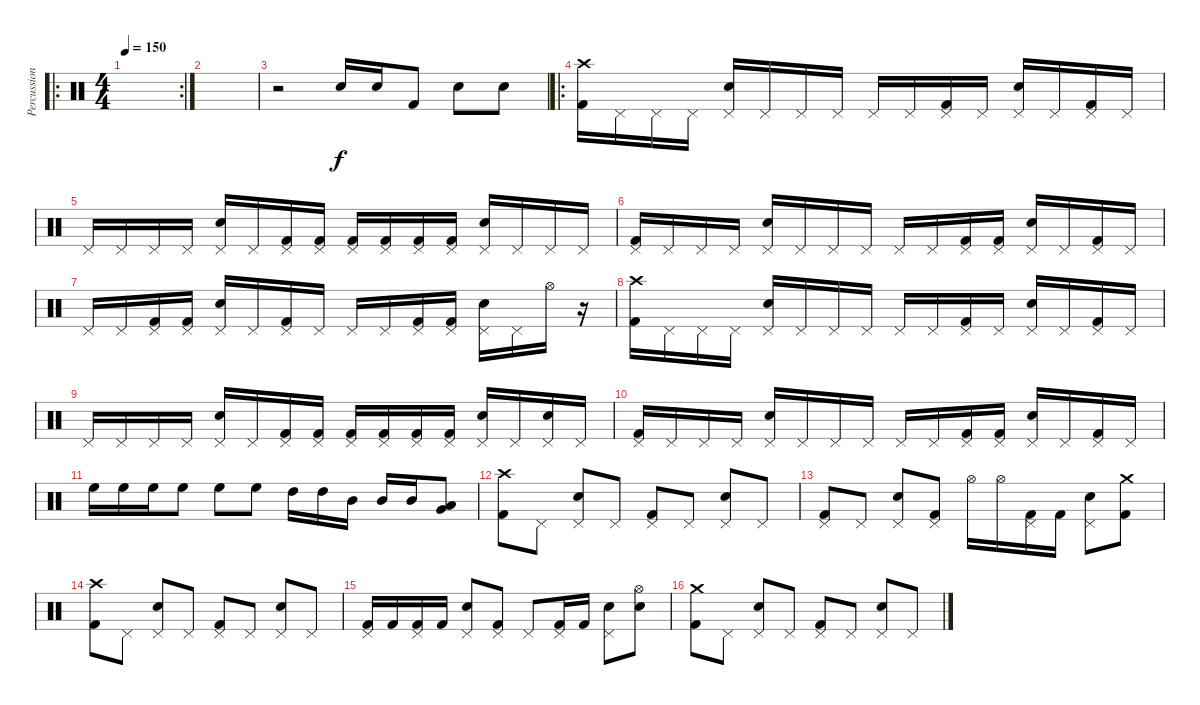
\track ("Percussion" "Percussion") {instrument percussion}
\staff {score}
\articulation defaults
\ro
\rc 2
\ts (4 4)
\tempo 150
\clef neutral
\ks c
|
|
r.2 "Snare (hit) 2".16 "Snare (hit) 2".16 "Kick (hit) 2".8 "Snare (hit) 2".8 "Snare (hit) 2".8 |
\ro
("Crash high (hit)" "Kick (hit) 2").16 "Pedal Hi-Hat (hit)".16 "Pedal Hi-Hat (hit)".16 "Pedal Hi-Hat (hit)".16 ("Pedal Hi-Hat (hit)" "Snare (hit) 2").16 "Pedal Hi-Hat (hit)".16 "Pedal Hi-Hat (hit)".16 "Pedal Hi-Hat (hit)".16 "Pedal Hi-Hat (hit)".16 "Pedal Hi-Hat (hit)".16 ("Pedal Hi-Hat (hit)" "Kick (hit) 2").16 "Pedal Hi-Hat (hit)".16 ("Pedal Hi-Hat (hit)" "Snare (hit) 2").16 "Pedal Hi-Hat (hit)".16 ("Pedal Hi-Hat (hit)" "Kick (hit) 2").16 "Pedal Hi-Hat (hit)".16 |
"Pedal Hi-Hat (hit)".16 "Pedal Hi-Hat (hit)".16 "Pedal Hi-Hat (hit)".16 "Pedal Hi-Hat (hit)".16 ("Pedal Hi-Hat (hit)" "Snare (hit) 2").16 "Pedal Hi-Hat (hit)".16 ("Pedal Hi-Hat (hit)" "Kick (hit) 2").16 ("Pedal Hi-Hat (hit)" "Kick (hit) 2").16 ("Pedal Hi-Hat (hit)" "Kick (hit) 2").16 ("Pedal Hi-Hat (hit)" "Kick (hit) 2").16 ("Pedal Hi-Hat (hit)" "Kick (hit) 2").16 ("Pedal Hi-Hat (hit)" "Kick (hit) 2").16 ("Pedal Hi-Hat (hit)" "Snare (hit) 2").16 "Pedal Hi-Hat (hit)".16 "Pedal Hi-Hat (hit)".16 "Pedal Hi-Hat (hit)".16 |
("Pedal Hi-Hat (hit)" "Kick (hit) 2").16 "Pedal Hi-Hat (hit)".16 "Pedal Hi-Hat (hit)".16 "Pedal Hi-Hat (hit)".16 ("Pedal Hi-Hat (hit)" "Snare (hit) 2").16 "Pedal Hi-Hat (hit)".16 "Pedal Hi-Hat (hit)".16 "Pedal Hi-Hat (hit)".16 "Pedal Hi-Hat (hit)".16 "Pedal Hi-Hat (hit)".16 ("Pedal Hi-Hat (hit)" "Kick (hit) 2").16 ("Pedal Hi-Hat (hit)" "Kick (hit) 2").16 ("Pedal Hi-Hat (hit)" "Snare (hit) 2").16 "Pedal Hi-Hat (hit)".16 ("Pedal Hi-Hat (hit)" "Kick (hit) 2").16 "Pedal Hi-Hat (hit)".16 |
"Pedal Hi-Hat (hit)".16 "Pedal Hi-Hat (hit)".16 ("Pedal Hi-Hat (hit)" "Kick (hit) 2").16 ("Pedal Hi-Hat (hit)" "Kick (hit) 2").16 ("Pedal Hi-Hat (hit)" "Snare (hit) 2").16 "Pedal Hi-Hat (hit)".16 ("Pedal Hi-Hat (hit)" "Kick (hit) 2").16 "Pedal Hi-Hat (hit)".16 "Pedal Hi-Hat (hit)".16 "Pedal Hi-Hat (hit)".16 ("Pedal Hi-Hat (hit)" "Kick (hit) 2").16 ("Pedal Hi-Hat (hit)" "Kick (hit) 2").16 ("Pedal Hi-Hat (hit)" "Snare (hit) 2").16 "Pedal Hi-Hat (hit)".16 "Hi-Hat (open)".16 r.16 |
("Crash high (hit)" "Kick (hit) 2").16 "Pedal Hi-Hat (hit)".16 "Pedal Hi-Hat (hit)".16 "Pedal Hi-Hat (hit)".16 ("Pedal Hi-Hat (hit)" "Snare (hit) 2").16 "Pedal Hi-Hat (hit)".16 "Pedal Hi-Hat (hit)".16 "Pedal Hi-Hat (hit)".16 "Pedal Hi-Hat (hit)".16 "Pedal Hi-Hat (hit)".16 ("Pedal Hi-Hat (hit)" "Kick (hit) 2").16 "Pedal Hi-Hat (hit)".16 ("Pedal Hi-Hat (hit)" "Snare (hit) 2").16 "Pedal Hi-Hat (hit)".16 ("Pedal Hi-Hat (hit)" "Kick (hit) 2").16 "Pedal Hi-Hat (hit)".16 |
"Pedal Hi-Hat (hit)".16 "Pedal Hi-Hat (hit)".16 "Pedal Hi-Hat (hit)".16 "Pedal Hi-Hat (hit)".16 ("Pedal Hi-Hat (hit)" "Snare (hit) 2").16 "Pedal Hi-Hat (hit)".16 ("Pedal Hi-Hat (hit)" "Kick (hit) 2").16 ("Pedal Hi-Hat (hit)" "Kick (hit) 2").16 ("Pedal Hi-Hat (hit)" "Kick (hit) 2").16 ("Pedal Hi-Hat (hit)" "Kick (hit) 2").16 ("Pedal Hi-Hat (hit)" "Kick (hit) 2").16 ("Pedal Hi-Hat (hit)" "Kick (hit) 2").16 ("Pedal Hi-Hat (hit)" "Snare (hit) 2").16 "Pedal Hi-Hat (hit)".16 ("Pedal Hi-Hat (hit)" "Snare (hit) 2").16 "Pedal Hi-Hat (hit)".16 |
("Pedal Hi-Hat (hit)" "Kick (hit) 2").16 "Pedal Hi-Hat (hit)".16 "Pedal Hi-Hat (hit)".16 "Pedal Hi-Hat (hit)".16 ("Pedal Hi-Hat (hit)" "Snare (hit) 2").16 "Pedal Hi-Hat (hit)".16 "Pedal Hi-Hat (hit)".16 "Pedal Hi-Hat (hit)".16 "Pedal Hi-Hat (hit)".16 "Pedal Hi-Hat (hit)".16 ("Pedal Hi-Hat (hit)" "Kick (hit) 2").16 ("Pedal Hi-Hat (hit)" "Kick (hit) 2").16 ("Pedal Hi-Hat (hit)" "Snare (hit) 2").16 "Pedal Hi-Hat (hit)".16 ("Pedal Hi-Hat (hit)" "Kick (hit) 2").16 "Pedal Hi-Hat (hit)".16 |
"High Floor Tom (hit)".16 "High Floor Tom (hit)".16 "High Floor Tom (hit)".16 "High Floor Tom (hit)".8 "High Floor Tom (hit)".8 "High Floor Tom (hit)".8 "High Tom (hit)".16 "High Tom (hit)".16 "Mid Tom (hit)".16 "Mid Tom (hit)".16 "Mid Tom (hit)".16 ("Low Tom (hit)" "Very Low Tom (hit)").8 |
("Crash high (hit)" "Kick (hit) 2").8 "Pedal Hi-Hat (hit)".8 ("Pedal Hi-Hat (hit)" "Snare (hit) 2").8 "Pedal Hi-Hat (hit)".8 ("Pedal Hi-Hat (hit)" "Kick (hit) 2").8 "Pedal Hi-Hat (hit)".8 ("Pedal Hi-Hat (hit)" "Snare (hit) 2").8 "Pedal Hi-Hat (hit)".8 |
("Pedal Hi-Hat (hit)" "Kick (hit) 2").8 "Pedal Hi-Hat (hit)".8 ("Pedal Hi-Hat (hit)" "Snare (hit) 2").8 ("Pedal Hi-Hat (hit)" "Kick (hit) 2").8 "Hi-Hat (open)".16 "Hi-Hat (open)".16 ("Pedal Hi-Hat (hit)" "Kick (hit) 2").16 "Kick (hit) 2".16 ("Pedal Hi-Hat (hit)" "Snare (hit) 2").8 ("Crash medium (hit)" "Kick (hit) 2").8 |
("Crash high (hit)" "Kick (hit) 2").8 "Pedal Hi-Hat (hit)".8 ("Pedal Hi-Hat (hit)" "Snare (hit) 2").8 "Pedal Hi-Hat (hit)".8 ("Pedal Hi-Hat (hit)" "Kick (hit) 2").8 "Pedal Hi-Hat (hit)".8 ("Pedal Hi-Hat (hit)" "Snare (hit) 2").8 "Pedal Hi-Hat (hit)".8 |
("Pedal Hi-Hat (hit)" "Kick (hit) 2").16 "Kick (hit) 2".16 ("Pedal Hi-Hat (hit)" "Kick (hit) 2").16 "Kick (hit) 2".16 ("Pedal Hi-Hat (hit)" "Snare (hit) 2").8 ("Pedal Hi-Hat (hit)" "Kick (hit) 2").8 "Pedal Hi-Hat (hit)".8 ("Pedal Hi-Hat (hit)" "Kick (hit) 2").16 "Kick (hit) 2".16 ("Pedal Hi-Hat (hit)" "Snare (hit) 2").8 ("Hi-Hat (open)" "Snare (hit) 2").8 |
("Crash medium (hit)" "Kick (hit) 2").8 "Pedal Hi-Hat (hit)".8 ("Pedal Hi-Hat (hit)" "Snare (hit) 2").8 "Pedal Hi-Hat (hit)".8 ("Pedal Hi-Hat (hit)" "Kick (hit) 2").8 "Pedal Hi-Hat (hit)".8 ("Pedal Hi-Hat (hit)" "Snare (hit) 2").8 "Pedal Hi-Hat (hit)".8
